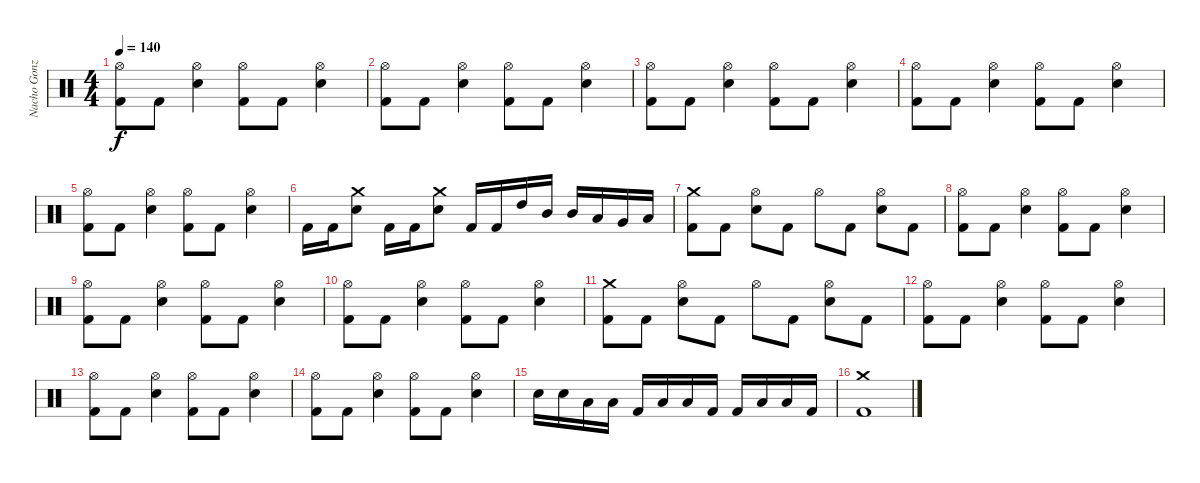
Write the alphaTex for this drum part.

\track ("Nacho Gonzalez" "Nacho Gonz") {instrument percussion}
\staff {score}
\articulation defaults
\ts (4 4)
\tempo 140
\clef neutral
\ks c
("Hi-Hat (open)" "Kick (hit) 2").8{dy f} "Kick (hit) 2".8 ("Hi-Hat (open)" "Electric Snare (hit)").4 ("Hi-Hat (open)" "Kick (hit) 2").8 "Kick (hit) 2".8 ("Hi-Hat (open)" "Electric Snare (hit)").4 |
("Hi-Hat (open)" "Kick (hit) 2").8 "Kick (hit) 2".8 ("Hi-Hat (open)" "Electric Snare (hit)").4 ("Hi-Hat (open)" "Kick (hit) 2").8 "Kick (hit) 2".8 ("Hi-Hat (open)" "Electric Snare (hit)").4 |
("Hi-Hat (open)" "Kick (hit) 2").8 "Kick (hit) 2".8 ("Hi-Hat (open)" "Electric Snare (hit)").4 ("Hi-Hat (open)" "Kick (hit) 2").8 "Kick (hit) 2".8 ("Hi-Hat (open)" "Electric Snare (hit)").4 |
("Hi-Hat (open)" "Kick (hit) 2").8 "Kick (hit) 2".8 ("Hi-Hat (open)" "Electric Snare (hit)").4 ("Hi-Hat (open)" "Kick (hit) 2").8 "Kick (hit) 2".8 ("Hi-Hat (open)" "Electric Snare (hit)").4 |
("Hi-Hat (open)" "Kick (hit) 2").8 "Kick (hit) 2".8 ("Hi-Hat (open)" "Electric Snare (hit)").4 ("Hi-Hat (open)" "Kick (hit) 2").8 "Kick (hit) 2".8 ("Hi-Hat (open)" "Electric Snare (hit)").4 |
"Kick (hit) 2".16 "Kick (hit) 2".16 ("Crash medium (hit)" "Electric Snare (hit)").8 "Kick (hit) 2".16 "Kick (hit) 2".16 ("Crash medium (hit)" "Electric Snare (hit)").8 "Kick (hit) 2".16 "Kick (hit) 2".16 "High Tom (hit)".16 "Mid Tom (hit)".16 "Mid Tom (hit)".16 "Low Tom (hit)".16 "Very Low Tom (hit)".16 "Low Floor Tom (hit)".16 |
("Crash medium (hit)" "Kick (hit) 2").8 "Kick (hit) 2".8 ("Hi-Hat (open)" "Electric Snare (hit)").8 "Kick (hit) 2".8 "Hi-Hat (open)".8 "Kick (hit) 2".8 ("Hi-Hat (open)" "Electric Snare (hit)").8 "Kick (hit) 2".8 |
("Hi-Hat (open)" "Kick (hit) 2").8 "Kick (hit) 2".8 ("Hi-Hat (open)" "Electric Snare (hit)").4 ("Hi-Hat (open)" "Kick (hit) 2").8 "Kick (hit) 2".8 ("Hi-Hat (open)" "Electric Snare (hit)").4 |
("Hi-Hat (open)" "Kick (hit) 2").8 "Kick (hit) 2".8 ("Hi-Hat (open)" "Electric Snare (hit)").4 ("Hi-Hat (open)" "Kick (hit) 2").8 "Kick (hit) 2".8 ("Hi-Hat (open)" "Electric Snare (hit)").4 |
("Hi-Hat (open)" "Kick (hit) 2").8 "Kick (hit) 2".8 ("Hi-Hat (open)" "Electric Snare (hit)").4 ("Hi-Hat (open)" "Kick (hit) 2").8 "Kick (hit) 2".8 ("Hi-Hat (open)" "Electric Snare (hit)").4 |
("Crash medium (hit)" "Kick (hit) 2").8 "Kick (hit) 2".8 ("Hi-Hat (open)" "Electric Snare (hit)").8 "Kick (hit) 2".8 "Hi-Hat (open)".8 "Kick (hit) 2".8 ("Hi-Hat (open)" "Electric Snare (hit)").8 "Kick (hit) 2".8 |
("Hi-Hat (open)" "Kick (hit) 2").8 "Kick (hit) 2".8 ("Hi-Hat (open)" "Electric Snare (hit)").4 ("Hi-Hat (open)" "Kick (hit) 2").8 "Kick (hit) 2".8 ("Hi-Hat (open)" "Electric Snare (hit)").4 |
("Hi-Hat (open)" "Kick (hit) 2").8 "Kick (hit) 2".8 ("Hi-Hat (open)" "Electric Snare (hit)").4 ("Hi-Hat (open)" "Kick (hit) 2").8 "Kick (hit) 2".8 ("Hi-Hat (open)" "Electric Snare (hit)").4 |
("Hi-Hat (open)" "Kick (hit) 2").8 "Kick (hit) 2".8 ("Hi-Hat (open)" "Electric Snare (hit)").4 ("Hi-Hat (open)" "Kick (hit) 2").8 "Kick (hit) 2".8 ("Hi-Hat (open)" "Electric Snare (hit)").4 |
"Electric Snare (hit)".16 "Electric Snare (hit)".16 "Low Tom (hit)".16 "Low Tom (hit)".16 "Kick (hit) 2".16 "Low Tom (hit)".16 "Low Tom (hit)".16 "Kick (hit) 2".16 "Kick (hit) 2".16 "Low Tom (hit)".16 "Low Tom (hit)".16 "Kick (hit) 2".16 |
("Crash medium (hit)" "Kick (hit) 2").1
